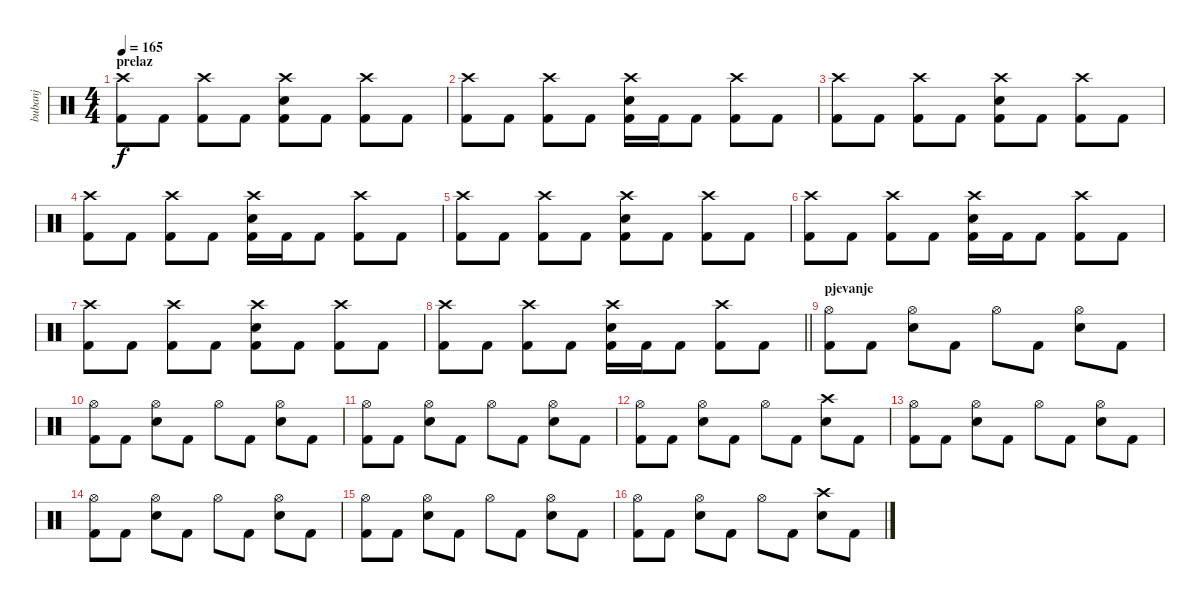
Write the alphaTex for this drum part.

\track ("bubanj" "bubanj") {instrument percussion}
\staff {score}
\articulation defaults
\ts (4 4)
\section ("" "prelaz")
\tempo 165
\clef neutral
\ks c
("Crash high (hit)" "Kick (hit) 2").8{dy f} "Kick (hit) 2".8 ("Crash high (hit)" "Kick (hit) 2").8 "Kick (hit) 2".8 ("Crash high (hit)" "Electric Snare (hit)" "Kick (hit) 2").8 "Kick (hit) 2".8 ("Crash high (hit)" "Kick (hit) 2").8 "Kick (hit) 2".8 |
("Crash high (hit)" "Kick (hit) 2").8 "Kick (hit) 2".8 ("Crash high (hit)" "Kick (hit) 2").8 "Kick (hit) 2".8 ("Crash high (hit)" "Electric Snare (hit)" "Kick (hit) 2").16 "Kick (hit) 2".16 "Kick (hit) 2".8 ("Crash high (hit)" "Kick (hit) 2").8 "Kick (hit) 2".8 |
("Crash high (hit)" "Kick (hit) 2").8 "Kick (hit) 2".8 ("Crash high (hit)" "Kick (hit) 2").8 "Kick (hit) 2".8 ("Crash high (hit)" "Electric Snare (hit)" "Kick (hit) 2").8 "Kick (hit) 2".8 ("Crash high (hit)" "Kick (hit) 2").8 "Kick (hit) 2".8 |
("Crash high (hit)" "Kick (hit) 2").8 "Kick (hit) 2".8 ("Crash high (hit)" "Kick (hit) 2").8 "Kick (hit) 2".8 ("Crash high (hit)" "Electric Snare (hit)" "Kick (hit) 2").16 "Kick (hit) 2".16 "Kick (hit) 2".8 ("Crash high (hit)" "Kick (hit) 2").8 "Kick (hit) 2".8 |
("Crash high (hit)" "Kick (hit) 2").8 "Kick (hit) 2".8 ("Crash high (hit)" "Kick (hit) 2").8 "Kick (hit) 2".8 ("Crash high (hit)" "Electric Snare (hit)" "Kick (hit) 2").8 "Kick (hit) 2".8 ("Crash high (hit)" "Kick (hit) 2").8 "Kick (hit) 2".8 |
("Crash high (hit)" "Kick (hit) 2").8 "Kick (hit) 2".8 ("Crash high (hit)" "Kick (hit) 2").8 "Kick (hit) 2".8 ("Crash high (hit)" "Electric Snare (hit)" "Kick (hit) 2").16 "Kick (hit) 2".16 "Kick (hit) 2".8 ("Crash high (hit)" "Kick (hit) 2").8 "Kick (hit) 2".8 |
("Crash high (hit)" "Kick (hit) 2").8 "Kick (hit) 2".8 ("Crash high (hit)" "Kick (hit) 2").8 "Kick (hit) 2".8 ("Crash high (hit)" "Electric Snare (hit)" "Kick (hit) 2").8 "Kick (hit) 2".8 ("Crash high (hit)" "Kick (hit) 2").8 "Kick (hit) 2".8 |
\barLineRight lightlight
("Crash high (hit)" "Kick (hit) 2").8 "Kick (hit) 2".8 ("Crash high (hit)" "Kick (hit) 2").8 "Kick (hit) 2".8 ("Crash high (hit)" "Electric Snare (hit)" "Kick (hit) 2").16 "Kick (hit) 2".16 "Kick (hit) 2".8 ("Crash high (hit)" "Kick (hit) 2").8 "Kick (hit) 2".8 |
\section ("" "pjevanje")
("Hi-Hat (open)" "Kick (hit) 2").8 "Kick (hit) 2".8 ("Hi-Hat (open)" "Electric Snare (hit)").8 "Kick (hit) 2".8 "Hi-Hat (open)".8 "Kick (hit) 2".8 ("Hi-Hat (open)" "Electric Snare (hit)").8 "Kick (hit) 2".8 |
("Hi-Hat (open)" "Kick (hit) 2").8 "Kick (hit) 2".8 ("Hi-Hat (open)" "Electric Snare (hit)").8 "Kick (hit) 2".8 "Hi-Hat (open)".8 "Kick (hit) 2".8 ("Hi-Hat (open)" "Electric Snare (hit)").8 "Kick (hit) 2".8 |
("Hi-Hat (open)" "Kick (hit) 2").8 "Kick (hit) 2".8 ("Hi-Hat (open)" "Electric Snare (hit)").8 "Kick (hit) 2".8 "Hi-Hat (open)".8 "Kick (hit) 2".8 ("Hi-Hat (open)" "Electric Snare (hit)").8 "Kick (hit) 2".8 |
("Hi-Hat (open)" "Kick (hit) 2").8 "Kick (hit) 2".8 ("Hi-Hat (open)" "Electric Snare (hit)").8 "Kick (hit) 2".8 "Hi-Hat (open)".8 "Kick (hit) 2".8 ("Crash high (hit)" "Electric Snare (hit)").8 "Kick (hit) 2".8 |
("Hi-Hat (open)" "Kick (hit) 2").8 "Kick (hit) 2".8 ("Hi-Hat (open)" "Electric Snare (hit)").8 "Kick (hit) 2".8 "Hi-Hat (open)".8 "Kick (hit) 2".8 ("Hi-Hat (open)" "Electric Snare (hit)").8 "Kick (hit) 2".8 |
("Hi-Hat (open)" "Kick (hit) 2").8 "Kick (hit) 2".8 ("Hi-Hat (open)" "Electric Snare (hit)").8 "Kick (hit) 2".8 "Hi-Hat (open)".8 "Kick (hit) 2".8 ("Hi-Hat (open)" "Electric Snare (hit)").8 "Kick (hit) 2".8 |
("Hi-Hat (open)" "Kick (hit) 2").8 "Kick (hit) 2".8 ("Hi-Hat (open)" "Electric Snare (hit)").8 "Kick (hit) 2".8 "Hi-Hat (open)".8 "Kick (hit) 2".8 ("Hi-Hat (open)" "Electric Snare (hit)").8 "Kick (hit) 2".8 |
("Hi-Hat (open)" "Kick (hit) 2").8 "Kick (hit) 2".8 ("Hi-Hat (open)" "Electric Snare (hit)").8 "Kick (hit) 2".8 "Hi-Hat (open)".8 "Kick (hit) 2".8 ("Crash high (hit)" "Electric Snare (hit)").8 "Kick (hit) 2".8
